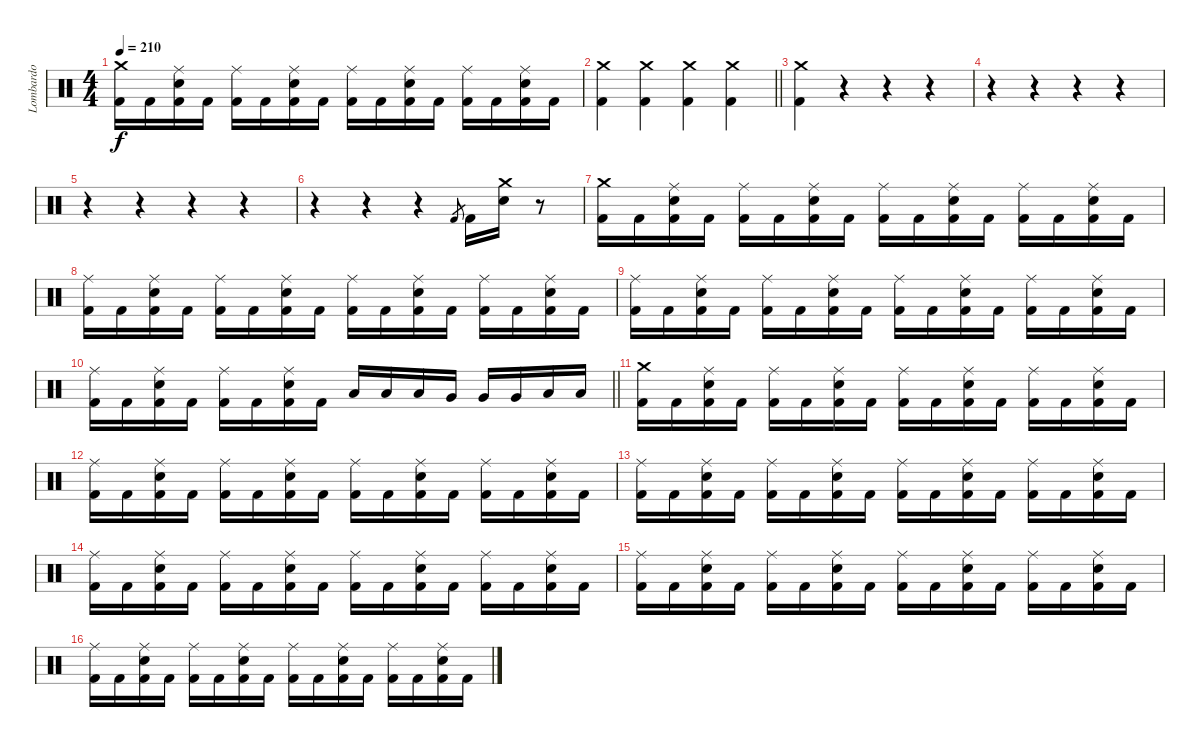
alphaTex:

\track ("Lombardo" "Lombardo") {instrument percussion}
\staff {score}
\articulation defaults
\ts (4 4)
\tempo 210
\clef neutral
\ks c
("Crash medium (hit)" "Kick (hit) 2").16{dy f} "Kick (hit) 2".16 ("Ride (middle)" "Snare (hit) 2" "Kick (hit) 2").16 "Kick (hit) 2".16 ("Ride (middle)" "Kick (hit) 2").16 "Kick (hit) 2".16 ("Ride (middle)" "Snare (hit) 2" "Kick (hit) 2").16 "Kick (hit) 2".16 ("Ride (middle)" "Kick (hit) 2").16 "Kick (hit) 2".16 ("Ride (middle)" "Snare (hit) 2" "Kick (hit) 2").16 "Kick (hit) 2".16 ("Ride (middle)" "Kick (hit) 2").16 "Kick (hit) 2".16 ("Ride (middle)" "Snare (hit) 2" "Kick (hit) 2").16 "Kick (hit) 2".16 |
\barLineRight lightlight
("Crash medium (hit)" "Kick (hit) 2").4 ("Crash medium (hit)" "Kick (hit) 2").4 ("Crash medium (hit)" "Kick (hit) 2").4 ("Crash medium (hit)" "Kick (hit) 2").4 |
("Crash medium (hit)" "Kick (hit) 2").4 r.4 r.4 r.4 |
r.4 r.4 r.4 r.4 |
r.4 r.4 r.4 r.4 |
r.4 r.4 r.4 "Kick (hit) 2".8{gr} "Kick (hit) 2".16 ("Crash medium (hit)" "Snare (hit) 2").16 r.8 |
("Crash medium (hit)" "Kick (hit) 2").16 "Kick (hit) 2".16 ("Ride (middle)" "Snare (hit) 2" "Kick (hit) 2").16 "Kick (hit) 2".16 ("Ride (middle)" "Kick (hit) 2").16 "Kick (hit) 2".16 ("Ride (middle)" "Snare (hit) 2" "Kick (hit) 2").16 "Kick (hit) 2".16 ("Ride (middle)" "Kick (hit) 2").16 "Kick (hit) 2".16 ("Ride (middle)" "Snare (hit) 2" "Kick (hit) 2").16 "Kick (hit) 2".16 ("Ride (middle)" "Kick (hit) 2").16 "Kick (hit) 2".16 ("Ride (middle)" "Snare (hit) 2" "Kick (hit) 2").16 "Kick (hit) 2".16 |
("Ride (middle)" "Kick (hit) 2").16 "Kick (hit) 2".16 ("Ride (middle)" "Snare (hit) 2" "Kick (hit) 2").16 "Kick (hit) 2".16 ("Ride (middle)" "Kick (hit) 2").16 "Kick (hit) 2".16 ("Ride (middle)" "Snare (hit) 2" "Kick (hit) 2").16 "Kick (hit) 2".16 ("Ride (middle)" "Kick (hit) 2").16 "Kick (hit) 2".16 ("Ride (middle)" "Snare (hit) 2" "Kick (hit) 2").16 "Kick (hit) 2".16 ("Ride (middle)" "Kick (hit) 2").16 "Kick (hit) 2".16 ("Ride (middle)" "Snare (hit) 2" "Kick (hit) 2").16 "Kick (hit) 2".16 |
("Ride (middle)" "Kick (hit) 2").16 "Kick (hit) 2".16 ("Ride (middle)" "Snare (hit) 2" "Kick (hit) 2").16 "Kick (hit) 2".16 ("Ride (middle)" "Kick (hit) 2").16 "Kick (hit) 2".16 ("Ride (middle)" "Snare (hit) 2" "Kick (hit) 2").16 "Kick (hit) 2".16 ("Ride (middle)" "Kick (hit) 2").16 "Kick (hit) 2".16 ("Ride (middle)" "Snare (hit) 2" "Kick (hit) 2").16 "Kick (hit) 2".16 ("Ride (middle)" "Kick (hit) 2").16 "Kick (hit) 2".16 ("Ride (middle)" "Snare (hit) 2" "Kick (hit) 2").16 "Kick (hit) 2".16 |
\barLineRight lightlight
("Ride (middle)" "Kick (hit) 2").16 "Kick (hit) 2".16 ("Ride (middle)" "Snare (hit) 2" "Kick (hit) 2").16 "Kick (hit) 2".16 ("Ride (middle)" "Kick (hit) 2").16 "Kick (hit) 2".16 ("Ride (middle)" "Snare (hit) 2" "Kick (hit) 2").16 "Kick (hit) 2".16 "Low Tom (hit)".16 "Low Tom (hit)".16 "Low Tom (hit)".16 "Very Low Tom (hit)".16 "Very Low Tom (hit)".16 "Very Low Tom (hit)".16 "Low Floor Tom (hit)".16 "Low Floor Tom (hit)".16 |
("Crash medium (hit)" "Kick (hit) 2").16 "Kick (hit) 2".16 ("Ride (middle)" "Snare (hit) 2" "Kick (hit) 2").16 "Kick (hit) 2".16 ("Ride (middle)" "Kick (hit) 2").16 "Kick (hit) 2".16 ("Ride (middle)" "Snare (hit) 2" "Kick (hit) 2").16 "Kick (hit) 2".16 ("Ride (middle)" "Kick (hit) 2").16 "Kick (hit) 2".16 ("Ride (middle)" "Snare (hit) 2" "Kick (hit) 2").16 "Kick (hit) 2".16 ("Ride (middle)" "Kick (hit) 2").16 "Kick (hit) 2".16 ("Ride (middle)" "Snare (hit) 2" "Kick (hit) 2").16 "Kick (hit) 2".16 |
("Ride (middle)" "Kick (hit) 2").16 "Kick (hit) 2".16 ("Ride (middle)" "Snare (hit) 2" "Kick (hit) 2").16 "Kick (hit) 2".16 ("Ride (middle)" "Kick (hit) 2").16 "Kick (hit) 2".16 ("Ride (middle)" "Snare (hit) 2" "Kick (hit) 2").16 "Kick (hit) 2".16 ("Ride (middle)" "Kick (hit) 2").16 "Kick (hit) 2".16 ("Ride (middle)" "Snare (hit) 2" "Kick (hit) 2").16 "Kick (hit) 2".16 ("Ride (middle)" "Kick (hit) 2").16 "Kick (hit) 2".16 ("Ride (middle)" "Snare (hit) 2" "Kick (hit) 2").16 "Kick (hit) 2".16 |
("Ride (middle)" "Kick (hit) 2").16 "Kick (hit) 2".16 ("Ride (middle)" "Snare (hit) 2" "Kick (hit) 2").16 "Kick (hit) 2".16 ("Ride (middle)" "Kick (hit) 2").16 "Kick (hit) 2".16 ("Ride (middle)" "Snare (hit) 2" "Kick (hit) 2").16 "Kick (hit) 2".16 ("Ride (middle)" "Kick (hit) 2").16 "Kick (hit) 2".16 ("Ride (middle)" "Snare (hit) 2" "Kick (hit) 2").16 "Kick (hit) 2".16 ("Ride (middle)" "Kick (hit) 2").16 "Kick (hit) 2".16 ("Ride (middle)" "Snare (hit) 2" "Kick (hit) 2").16 "Kick (hit) 2".16 |
("Ride (middle)" "Kick (hit) 2").16 "Kick (hit) 2".16 ("Ride (middle)" "Snare (hit) 2" "Kick (hit) 2").16 "Kick (hit) 2".16 ("Ride (middle)" "Kick (hit) 2").16 "Kick (hit) 2".16 ("Ride (middle)" "Snare (hit) 2" "Kick (hit) 2").16 "Kick (hit) 2".16 ("Ride (middle)" "Kick (hit) 2").16 "Kick (hit) 2".16 ("Ride (middle)" "Snare (hit) 2" "Kick (hit) 2").16 "Kick (hit) 2".16 ("Ride (middle)" "Kick (hit) 2").16 "Kick (hit) 2".16 ("Ride (middle)" "Snare (hit) 2" "Kick (hit) 2").16 "Kick (hit) 2".16 |
("Ride (middle)" "Kick (hit) 2").16 "Kick (hit) 2".16 ("Ride (middle)" "Snare (hit) 2" "Kick (hit) 2").16 "Kick (hit) 2".16 ("Ride (middle)" "Kick (hit) 2").16 "Kick (hit) 2".16 ("Ride (middle)" "Snare (hit) 2" "Kick (hit) 2").16 "Kick (hit) 2".16 ("Ride (middle)" "Kick (hit) 2").16 "Kick (hit) 2".16 ("Ride (middle)" "Snare (hit) 2" "Kick (hit) 2").16 "Kick (hit) 2".16 ("Ride (middle)" "Kick (hit) 2").16 "Kick (hit) 2".16 ("Ride (middle)" "Snare (hit) 2" "Kick (hit) 2").16 "Kick (hit) 2".16 |
("Ride (middle)" "Kick (hit) 2").16 "Kick (hit) 2".16 ("Ride (middle)" "Snare (hit) 2" "Kick (hit) 2").16 "Kick (hit) 2".16 ("Ride (middle)" "Kick (hit) 2").16 "Kick (hit) 2".16 ("Ride (middle)" "Snare (hit) 2" "Kick (hit) 2").16 "Kick (hit) 2".16 ("Ride (middle)" "Kick (hit) 2").16 "Kick (hit) 2".16 ("Ride (middle)" "Snare (hit) 2" "Kick (hit) 2").16 "Kick (hit) 2".16 ("Ride (middle)" "Kick (hit) 2").16 "Kick (hit) 2".16 ("Ride (middle)" "Snare (hit) 2" "Kick (hit) 2").16 "Kick (hit) 2".16
